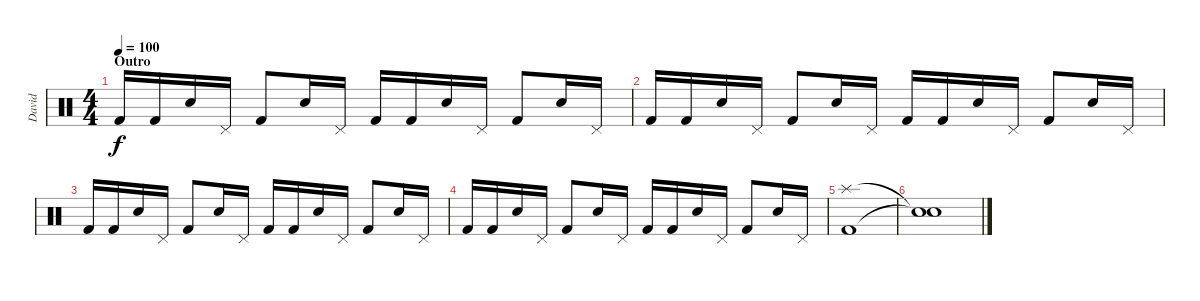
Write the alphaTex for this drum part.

\track ("David" "David") {instrument percussion}
\staff {score}
\articulation defaults
\ts (4 4)
\section ("" "Outro")
\tempo 100
\clef neutral
\ks c "Kick (hit) 2".16{dy f} "Kick (hit) 2".16 "Electric Snare (hit)".16 "Pedal Hi-Hat (hit)".16 "Kick (hit) 2".8 "Electric Snare (hit)".16 "Pedal Hi-Hat (hit)".16 "Kick (hit) 2".16 "Kick (hit) 2".16 "Electric Snare (hit)".16 "Pedal Hi-Hat (hit)".16 "Kick (hit) 2".8 "Electric Snare (hit)".16 "Pedal Hi-Hat (hit)".16
|
"Kick (hit) 2".16 "Kick (hit) 2".16 "Electric Snare (hit)".16 "Pedal Hi-Hat (hit)".16 "Kick (hit) 2".8 "Electric Snare (hit)".16 "Pedal Hi-Hat (hit)".16 "Kick (hit) 2".16 "Kick (hit) 2".16 "Electric Snare (hit)".16 "Pedal Hi-Hat (hit)".16 "Kick (hit) 2".8 "Electric Snare (hit)".16 "Pedal Hi-Hat (hit)".16 |
"Kick (hit) 2".16 "Kick (hit) 2".16 "Electric Snare (hit)".16 "Pedal Hi-Hat (hit)".16 "Kick (hit) 2".8 "Electric Snare (hit)".16 "Pedal Hi-Hat (hit)".16 "Kick (hit) 2".16 "Kick (hit) 2".16 "Electric Snare (hit)".16 "Pedal Hi-Hat (hit)".16 "Kick (hit) 2".8 "Electric Snare (hit)".16 "Pedal Hi-Hat (hit)".16 |
"Kick (hit) 2".16 "Kick (hit) 2".16 "Electric Snare (hit)".16 "Pedal Hi-Hat (hit)".16 "Kick (hit) 2".8 "Electric Snare (hit)".16 "Pedal Hi-Hat (hit)".16 "Kick (hit) 2".16 "Kick (hit) 2".16 "Electric Snare (hit)".16 "Pedal Hi-Hat (hit)".16 "Kick (hit) 2".8 "Electric Snare (hit)".16 "Pedal Hi-Hat (hit)".16 |
("Splash (hit)" "Kick (hit) 2").1 |
("Snare (hit)"{t} "Snare (hit)"{t}).1
